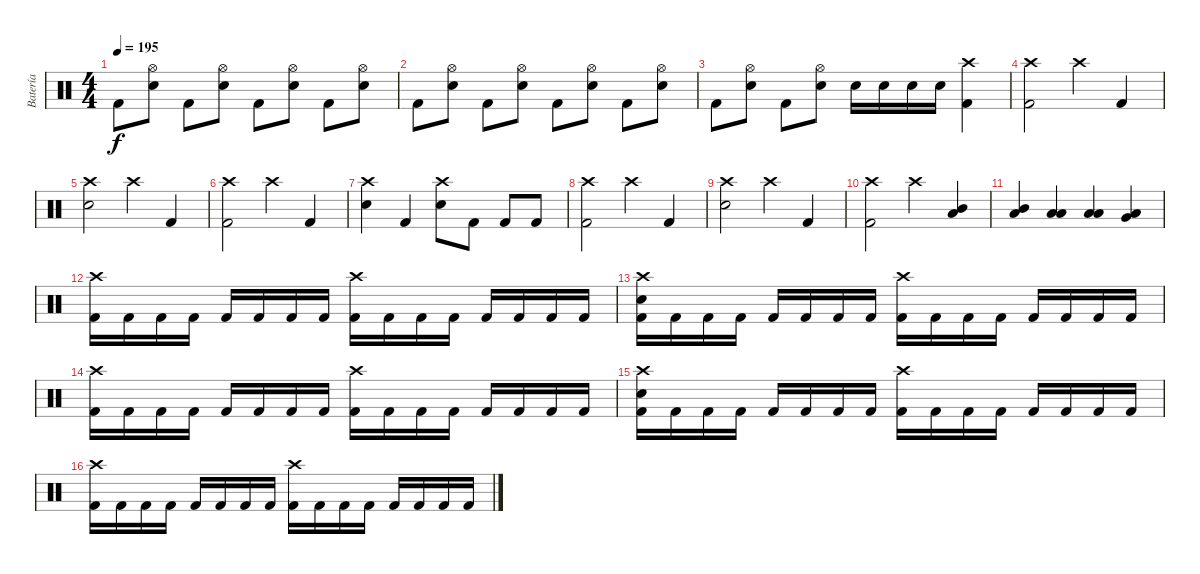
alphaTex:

\track ("Batería" "Batería") {instrument percussion}
\staff {score}
\articulation defaults
\ts (4 4)
\tempo 195
\clef neutral
\ks c "Kick (hit) 2".8{dy f}
("Hi-Hat (open)" "Snare (hit) 2").8 "Kick (hit) 2".8 ("Hi-Hat (open)" "Snare (hit) 2").8 "Kick (hit) 2".8 ("Hi-Hat (open)" "Snare (hit) 2").8 "Kick (hit) 2".8 ("Hi-Hat (open)" "Snare (hit) 2").8 |
"Kick (hit) 2".8 ("Hi-Hat (open)" "Snare (hit) 2").8 "Kick (hit) 2".8 ("Hi-Hat (open)" "Snare (hit) 2").8 "Kick (hit) 2".8 ("Hi-Hat (open)" "Snare (hit) 2").8 "Kick (hit) 2".8 ("Hi-Hat (open)" "Snare (hit) 2").8 |
"Kick (hit) 2".8 ("Hi-Hat (open)" "Snare (hit) 2").8 "Kick (hit) 2".8 ("Hi-Hat (open)" "Snare (hit) 2").8 "Snare (hit) 2".16 "Snare (hit) 2".16 "Snare (hit) 2".16 "Snare (hit) 2".16 ("Crash high (hit)" "Kick (hit) 2").4 |
("Crash high (hit)" "Kick (hit) 2").2 "Crash high (hit)".4 "Kick (hit) 2".4 |
("Crash high (hit)" "Snare (hit) 2").2 "Crash high (hit)".4 "Kick (hit) 2".4 |
("Crash high (hit)" "Kick (hit) 2").2 "Crash high (hit)".4 "Kick (hit) 2".4 |
("Crash high (hit)" "Snare (hit) 2").4 "Kick (hit) 2".4 ("Crash high (hit)" "Snare (hit) 2").8 "Kick (hit) 2".8 "Kick (hit) 2".8 "Kick (hit) 2".8 |
("Crash high (hit)" "Kick (hit) 2").2 "Crash high (hit)".4 "Kick (hit) 2".4 |
("Crash high (hit)" "Snare (hit) 2").2 "Crash high (hit)".4 "Kick (hit) 2".4 |
("Crash high (hit)" "Kick (hit) 2").2 "Crash high (hit)".4 ("Mid Tom (hit)" "Low Floor Tom (hit)").4 |
("Mid Tom (hit)" "Low Floor Tom (hit)").4 ("Low Tom (hit)" "Low Floor Tom (hit)").4 ("Low Tom (hit)" "Low Floor Tom (hit)").4 ("Very Low Tom (hit)" "Low Floor Tom (hit)").4 |
("Crash high (hit)" "Kick (hit) 2").16 "Kick (hit) 2".16 "Kick (hit) 2".16 "Kick (hit) 2".16 "Kick (hit) 2".16 "Kick (hit) 2".16 "Kick (hit) 2".16 "Kick (hit) 2".16 ("Crash high (hit)" "Kick (hit) 2").16 "Kick (hit) 2".16 "Kick (hit) 2".16 "Kick (hit) 2".16 "Kick (hit) 2".16 "Kick (hit) 2".16 "Kick (hit) 2".16 "Kick (hit) 2".16 |
("Crash high (hit)" "Snare (hit) 2" "Kick (hit) 2").16 "Kick (hit) 2".16 "Kick (hit) 2".16 "Kick (hit) 2".16 "Kick (hit) 2".16 "Kick (hit) 2".16 "Kick (hit) 2".16 "Kick (hit) 2".16 ("Crash high (hit)" "Kick (hit) 2").16 "Kick (hit) 2".16 "Kick (hit) 2".16 "Kick (hit) 2".16 "Kick (hit) 2".16 "Kick (hit) 2".16 "Kick (hit) 2".16 "Kick (hit) 2".16 |
("Crash high (hit)" "Kick (hit) 2").16 "Kick (hit) 2".16 "Kick (hit) 2".16 "Kick (hit) 2".16 "Kick (hit) 2".16 "Kick (hit) 2".16 "Kick (hit) 2".16 "Kick (hit) 2".16 ("Crash high (hit)" "Kick (hit) 2").16 "Kick (hit) 2".16 "Kick (hit) 2".16 "Kick (hit) 2".16 "Kick (hit) 2".16 "Kick (hit) 2".16 "Kick (hit) 2".16 "Kick (hit) 2".16 |
("Crash high (hit)" "Snare (hit) 2" "Kick (hit) 2").16 "Kick (hit) 2".16 "Kick (hit) 2".16 "Kick (hit) 2".16 "Kick (hit) 2".16 "Kick (hit) 2".16 "Kick (hit) 2".16 "Kick (hit) 2".16 ("Crash high (hit)" "Kick (hit) 2").16 "Kick (hit) 2".16 "Kick (hit) 2".16 "Kick (hit) 2".16 "Kick (hit) 2".16 "Kick (hit) 2".16 "Kick (hit) 2".16 "Kick (hit) 2".16 |
("Crash high (hit)" "Kick (hit) 2").16 "Kick (hit) 2".16 "Kick (hit) 2".16 "Kick (hit) 2".16 "Kick (hit) 2".16 "Kick (hit) 2".16 "Kick (hit) 2".16 "Kick (hit) 2".16 ("Crash high (hit)" "Kick (hit) 2").16 "Kick (hit) 2".16 "Kick (hit) 2".16 "Kick (hit) 2".16 "Kick (hit) 2".16 "Kick (hit) 2".16 "Kick (hit) 2".16 "Kick (hit) 2".16
